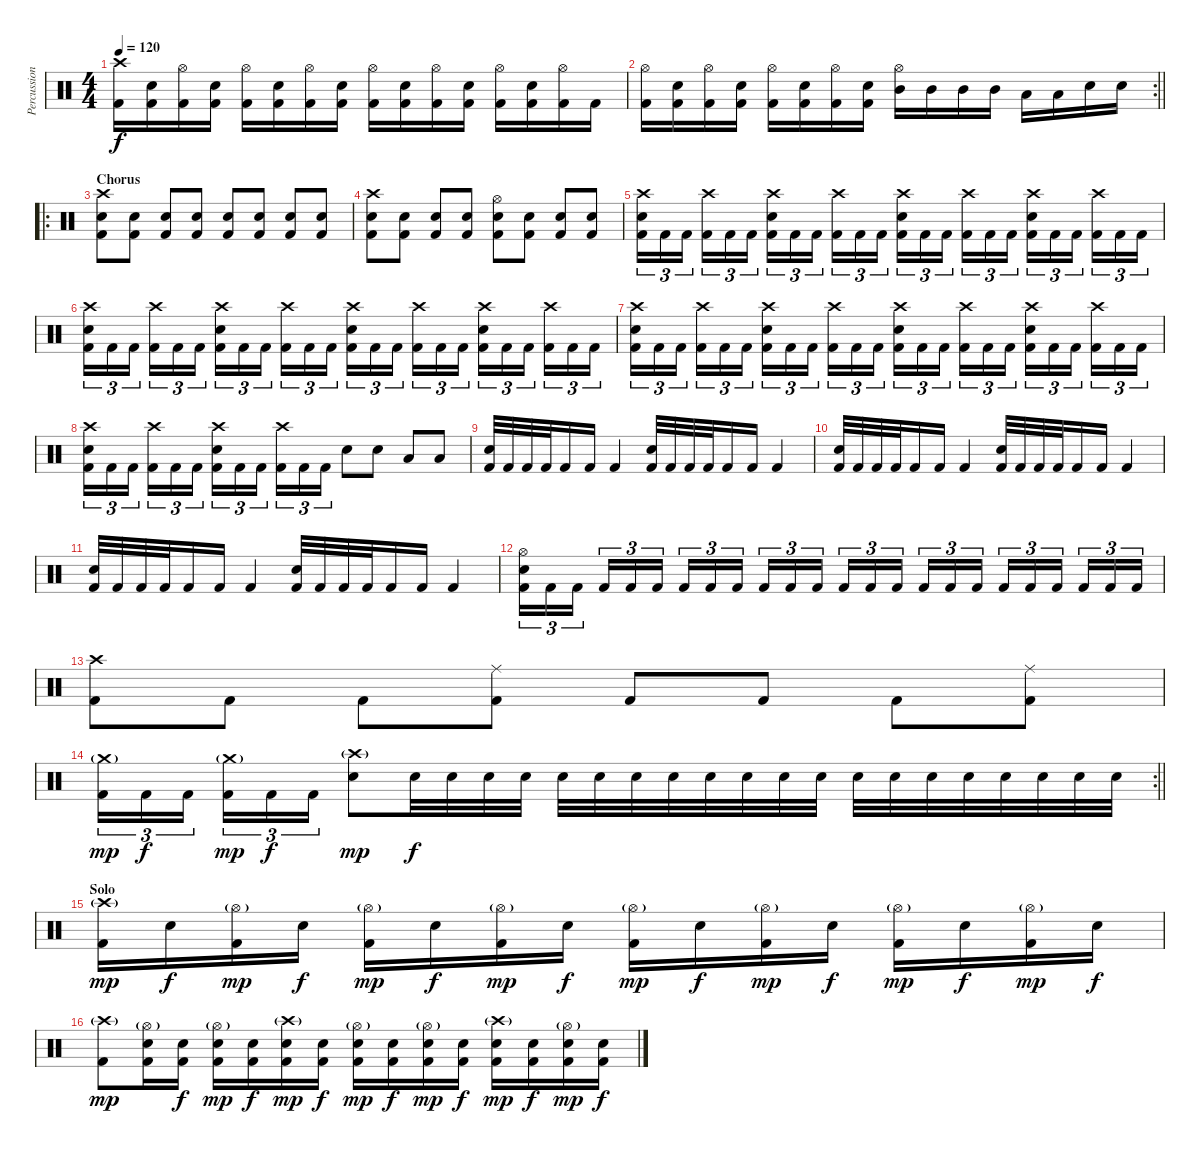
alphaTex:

\track ("Percussions" "Percussion") {instrument percussion}
\staff {score}
\articulation defaults
\ts (4 4)
\tempo 120
\clef neutral
\ks c
("Crash high (hit)" "Kick (hit) 2").16{dy f} ("Electric Snare (hit)" "Kick (hit) 2").16 ("Hi-Hat (open)" "Kick (hit) 2").16 ("Electric Snare (hit)" "Kick (hit) 2").16 ("Hi-Hat (open)" "Kick (hit) 2").16 ("Electric Snare (hit)" "Kick (hit) 2").16 ("Hi-Hat (open)" "Kick (hit) 2").16 ("Electric Snare (hit)" "Kick (hit) 2").16 ("Hi-Hat (open)" "Kick (hit) 2").16 ("Electric Snare (hit)" "Kick (hit) 2").16 ("Hi-Hat (open)" "Kick (hit) 2").16 ("Electric Snare (hit)" "Kick (hit) 2").16 ("Hi-Hat (open)" "Kick (hit) 2").16 ("Electric Snare (hit)" "Kick (hit) 2").16 ("Hi-Hat (open)" "Kick (hit) 2").16 "Kick (hit) 2".16 |
\rc 2
\barLineRight lightlight
("Hi-Hat (open)" "Kick (hit) 2").16 ("Electric Snare (hit)" "Kick (hit) 2").16 ("Hi-Hat (open)" "Kick (hit) 2").16 ("Electric Snare (hit)" "Kick (hit) 2").16 ("Hi-Hat (open)" "Kick (hit) 2").16 ("Electric Snare (hit)" "Kick (hit) 2").16 ("Hi-Hat (open)" "Kick (hit) 2").16 ("Electric Snare (hit)" "Kick (hit) 2").16 ("Hi-Hat (open)" "Mid Tom (hit)").16 "Mid Tom (hit)".16 "Mid Tom (hit)".16 "Mid Tom (hit)".16 "Low Tom (hit)".16 "Low Tom (hit)".16 "Electric Snare (hit)".16 "Electric Snare (hit)".16 |
\ro
\section ("" "Chorus")
("Crash high (hit)" "Electric Snare (hit)" "Kick (hit) 2").8 ("Electric Snare (hit)" "Kick (hit) 2").8 ("Electric Snare (hit)" "Kick (hit) 2").8 ("Electric Snare (hit)" "Kick (hit) 2").8 ("Electric Snare (hit)" "Kick (hit) 2").8 ("Electric Snare (hit)" "Kick (hit) 2").8 ("Electric Snare (hit)" "Kick (hit) 2").8 ("Electric Snare (hit)" "Kick (hit) 2").8 |
("Crash high (hit)" "Electric Snare (hit)" "Kick (hit) 2").8 ("Electric Snare (hit)" "Kick (hit) 2").8 ("Electric Snare (hit)" "Kick (hit) 2").8 ("Electric Snare (hit)" "Kick (hit) 2").8 ("Hi-Hat (open)" "Electric Snare (hit)" "Kick (hit) 2").8 ("Electric Snare (hit)" "Kick (hit) 2").8 ("Electric Snare (hit)" "Kick (hit) 2").8 ("Electric Snare (hit)" "Kick (hit) 2").8 |
("Crash high (hit)" "Electric Snare (hit)" "Kick (hit) 2").16{tu (3 2)} "Kick (hit) 2".16{tu (3 2)} "Kick (hit) 2".16{tu (3 2) beam splitsecondary} ("Crash high (hit)" "Kick (hit) 2").16{tu (3 2)} "Kick (hit) 2".16{tu (3 2)} "Kick (hit) 2".16{tu (3 2)} ("Crash high (hit)" "Snare (hit) 2" "Kick (hit) 2").16{tu (3 2)} "Kick (hit) 2".16{tu (3 2)} "Kick (hit) 2".16{tu (3 2) beam splitsecondary} ("Crash high (hit)" "Kick (hit) 2").16{tu (3 2)} "Kick (hit) 2".16{tu (3 2)} "Kick (hit) 2".16{tu (3 2)} ("Crash high (hit)" "Electric Snare (hit)" "Kick (hit) 2").16{tu (3 2)} "Kick (hit) 2".16{tu (3 2)} "Kick (hit) 2".16{tu (3 2) beam splitsecondary} ("Crash high (hit)" "Kick (hit) 2").16{tu (3 2)} "Kick (hit) 2".16{tu (3 2)} "Kick (hit) 2".16{tu (3 2)} ("Crash high (hit)" "Snare (hit) 2" "Kick (hit) 2").16{tu (3 2)} "Kick (hit) 2".16{tu (3 2)} "Kick (hit) 2".16{tu (3 2) beam splitsecondary} ("Crash high (hit)" "Kick (hit) 2").16{tu (3 2)} "Kick (hit) 2".16{tu (3 2)} "Kick (hit) 2".16{tu (3 2)} |
("Crash high (hit)" "Electric Snare (hit)" "Kick (hit) 2").16{tu (3 2)} "Kick (hit) 2".16{tu (3 2)} "Kick (hit) 2".16{tu (3 2) beam splitsecondary} ("Crash high (hit)" "Kick (hit) 2").16{tu (3 2)} "Kick (hit) 2".16{tu (3 2)} "Kick (hit) 2".16{tu (3 2)} ("Crash high (hit)" "Snare (hit) 2" "Kick (hit) 2").16{tu (3 2)} "Kick (hit) 2".16{tu (3 2)} "Kick (hit) 2".16{tu (3 2) beam splitsecondary} ("Crash high (hit)" "Kick (hit) 2").16{tu (3 2)} "Kick (hit) 2".16{tu (3 2)} "Kick (hit) 2".16{tu (3 2)} ("Crash high (hit)" "Electric Snare (hit)" "Kick (hit) 2").16{tu (3 2)} "Kick (hit) 2".16{tu (3 2)} "Kick (hit) 2".16{tu (3 2) beam splitsecondary} ("Crash high (hit)" "Kick (hit) 2").16{tu (3 2)} "Kick (hit) 2".16{tu (3 2)} "Kick (hit) 2".16{tu (3 2)} ("Crash high (hit)" "Snare (hit) 2" "Kick (hit) 2").16{tu (3 2)} "Kick (hit) 2".16{tu (3 2)} "Kick (hit) 2".16{tu (3 2) beam splitsecondary} ("Crash high (hit)" "Kick (hit) 2").16{tu (3 2)} "Kick (hit) 2".16{tu (3 2)} "Kick (hit) 2".16{tu (3 2)} |
("Crash high (hit)" "Electric Snare (hit)" "Kick (hit) 2").16{tu (3 2)} "Kick (hit) 2".16{tu (3 2)} "Kick (hit) 2".16{tu (3 2) beam splitsecondary} ("Crash high (hit)" "Kick (hit) 2").16{tu (3 2)} "Kick (hit) 2".16{tu (3 2)} "Kick (hit) 2".16{tu (3 2)} ("Crash high (hit)" "Snare (hit) 2" "Kick (hit) 2").16{tu (3 2)} "Kick (hit) 2".16{tu (3 2)} "Kick (hit) 2".16{tu (3 2) beam splitsecondary} ("Crash high (hit)" "Kick (hit) 2").16{tu (3 2)} "Kick (hit) 2".16{tu (3 2)} "Kick (hit) 2".16{tu (3 2)} ("Crash high (hit)" "Electric Snare (hit)" "Kick (hit) 2").16{tu (3 2)} "Kick (hit) 2".16{tu (3 2)} "Kick (hit) 2".16{tu (3 2) beam splitsecondary} ("Crash high (hit)" "Kick (hit) 2").16{tu (3 2)} "Kick (hit) 2".16{tu (3 2)} "Kick (hit) 2".16{tu (3 2)} ("Crash high (hit)" "Snare (hit) 2" "Kick (hit) 2").16{tu (3 2)} "Kick (hit) 2".16{tu (3 2)} "Kick (hit) 2".16{tu (3 2) beam splitsecondary} ("Crash high (hit)" "Kick (hit) 2").16{tu (3 2)} "Kick (hit) 2".16{tu (3 2)} "Kick (hit) 2".16{tu (3 2)} |
("Crash high (hit)" "Electric Snare (hit)" "Kick (hit) 2").16{tu (3 2)} "Kick (hit) 2".16{tu (3 2)} "Kick (hit) 2".16{tu (3 2) beam splitsecondary} ("Crash high (hit)" "Kick (hit) 2").16{tu (3 2)} "Kick (hit) 2".16{tu (3 2)} "Kick (hit) 2".16{tu (3 2)} ("Crash high (hit)" "Snare (hit) 2" "Kick (hit) 2").16{tu (3 2)} "Kick (hit) 2".16{tu (3 2)} "Kick (hit) 2".16{tu (3 2) beam splitsecondary} ("Crash high (hit)" "Kick (hit) 2").16{tu (3 2)} "Kick (hit) 2".16{tu (3 2)} "Kick (hit) 2".16{tu (3 2)} "Electric Snare (hit)".8 "Electric Snare (hit)".8 "Low Tom (hit)".8 "Low Tom (hit)".8 |
("Electric Snare (hit)" "Kick (hit) 2").32 "Kick (hit) 2".32 "Kick (hit) 2".32 "Kick (hit) 2".32 "Kick (hit) 2".16 "Kick (hit) 2".16 "Kick (hit) 2".4 ("Electric Snare (hit)" "Kick (hit) 2").32 "Kick (hit) 2".32 "Kick (hit) 2".32 "Kick (hit) 2".32 "Kick (hit) 2".16 "Kick (hit) 2".16 "Kick (hit) 2".4 |
("Electric Snare (hit)" "Kick (hit) 2").32 "Kick (hit) 2".32 "Kick (hit) 2".32 "Kick (hit) 2".32 "Kick (hit) 2".16 "Kick (hit) 2".16 "Kick (hit) 2".4 ("Electric Snare (hit)" "Kick (hit) 2").32 "Kick (hit) 2".32 "Kick (hit) 2".32 "Kick (hit) 2".32 "Kick (hit) 2".16 "Kick (hit) 2".16 "Kick (hit) 2".4 |
("Electric Snare (hit)" "Kick (hit) 2").32 "Kick (hit) 2".32 "Kick (hit) 2".32 "Kick (hit) 2".32 "Kick (hit) 2".16 "Kick (hit) 2".16 "Kick (hit) 2".4 ("Electric Snare (hit)" "Kick (hit) 2").32 "Kick (hit) 2".32 "Kick (hit) 2".32 "Kick (hit) 2".32 "Kick (hit) 2".16 "Kick (hit) 2".16 "Kick (hit) 2".4 |
("Hi-Hat (open)" "Electric Snare (hit)" "Kick (hit) 2").16{tu (3 2)} "Kick (hit) 2".16{tu (3 2)} "Kick (hit) 2".16{tu (3 2) beam splitsecondary} "Kick (hit) 2".16{tu (3 2)} "Kick (hit) 2".16{tu (3 2)} "Kick (hit) 2".16{tu (3 2)} "Kick (hit) 2".16{tu (3 2)} "Kick (hit) 2".16{tu (3 2)} "Kick (hit) 2".16{tu (3 2) beam splitsecondary} "Kick (hit) 2".16{tu (3 2)} "Kick (hit) 2".16{tu (3 2)} "Kick (hit) 2".16{tu (3 2)} "Kick (hit) 2".16{tu (3 2)} "Kick (hit) 2".16{tu (3 2)} "Kick (hit) 2".16{tu (3 2) beam splitsecondary} "Kick (hit) 2".16{tu (3 2)} "Kick (hit) 2".16{tu (3 2)} "Kick (hit) 2".16{tu (3 2)} "Kick (hit) 2".16{tu (3 2)} "Kick (hit) 2".16{tu (3 2)} "Kick (hit) 2".16{tu (3 2) beam splitsecondary} "Kick (hit) 2".16{tu (3 2)} "Kick (hit) 2".16{tu (3 2)} "Kick (hit) 2".16{tu (3 2)} |
("Crash high (hit)" "Kick (hit) 2").8 "Kick (hit) 2".8 "Kick (hit) 2".8 ("Ride (middle)" "Kick (hit) 2").8 "Kick (hit) 2".8 "Kick (hit) 2".8 "Kick (hit) 2".8 ("Ride (middle)" "Kick (hit) 2").8 |
\rc 2
\barLineRight lightlight
("Crash medium (hit)"{g} "Kick (hit) 2").16{tu (3 2) dy mp} "Kick (hit) 2".16{tu (3 2) dy f} "Kick (hit) 2".16{tu (3 2) beam splitsecondary} ("Crash medium (hit)"{g} "Kick (hit) 2").16{tu (3 2) dy mp} "Kick (hit) 2".16{tu (3 2) dy f} "Kick (hit) 2".16{tu (3 2)} ("Crash high (hit)"{g} "Electric Snare (hit)").8{dy mp} "Electric Snare (hit)".32{dy f} "Electric Snare (hit)".32 "Electric Snare (hit)".32 "Electric Snare (hit)".32 "Electric Snare (hit)".32 "Electric Snare (hit)".32 "Electric Snare (hit)".32 "Electric Snare (hit)".32 "Electric Snare (hit)".32 "Electric Snare (hit)".32 "Electric Snare (hit)".32 "Electric Snare (hit)".32 "Electric Snare (hit)".32 "Electric Snare (hit)".32 "Electric Snare (hit)".32 "Electric Snare (hit)".32 "Electric Snare (hit)".32 "Electric Snare (hit)".32 "Electric Snare (hit)".32 "Electric Snare (hit)".32 |
\section ("" "Solo")
("Crash high (hit)"{g} "Kick (hit) 2").16{dy mp} "Electric Snare (hit)".16{dy f} ("Hi-Hat (open)"{g} "Kick (hit) 2").16{dy mp} "Electric Snare (hit)".16{dy f} ("Hi-Hat (open)"{g} "Kick (hit) 2").16{dy mp} "Electric Snare (hit)".16{dy f} ("Hi-Hat (open)"{g} "Kick (hit) 2").16{dy mp} "Electric Snare (hit)".16{dy f} ("Hi-Hat (open)"{g} "Kick (hit) 2").16{dy mp} "Electric Snare (hit)".16{dy f} ("Hi-Hat (open)"{g} "Kick (hit) 2").16{dy mp} "Electric Snare (hit)".16{dy f} ("Hi-Hat (open)"{g} "Kick (hit) 2").16{dy mp} "Electric Snare (hit)".16{dy f} ("Hi-Hat (open)"{g} "Kick (hit) 2").16{dy mp} "Electric Snare (hit)".16{dy f} |
("Crash high (hit)"{g} "Kick (hit) 2").8{dy mp} ("Hi-Hat (open)"{g} "Electric Snare (hit)" "Kick (hit) 2").16 ("Electric Snare (hit)" "Kick (hit) 2").16{dy f} ("Hi-Hat (open)"{g} "Electric Snare (hit)" "Kick (hit) 2").16{dy mp} ("Electric Snare (hit)" "Kick (hit) 2").16{dy f} ("Crash high (hit)"{g} "Electric Snare (hit)" "Kick (hit) 2").16{dy mp} ("Electric Snare (hit)" "Kick (hit) 2").16{dy f} ("Hi-Hat (open)"{g} "Electric Snare (hit)" "Kick (hit) 2").16{dy mp} ("Electric Snare (hit)" "Kick (hit) 2").16{dy f} ("Hi-Hat (open)"{g} "Electric Snare (hit)" "Kick (hit) 2").16{dy mp} ("Electric Snare (hit)" "Kick (hit) 2").16{dy f} ("Crash high (hit)"{g} "Electric Snare (hit)" "Kick (hit) 2").16{dy mp} ("Electric Snare (hit)" "Kick (hit) 2").16{dy f} ("Hi-Hat (open)"{g} "Electric Snare (hit)" "Kick (hit) 2").16{dy mp} ("Electric Snare (hit)" "Kick (hit) 2").16{dy f}
